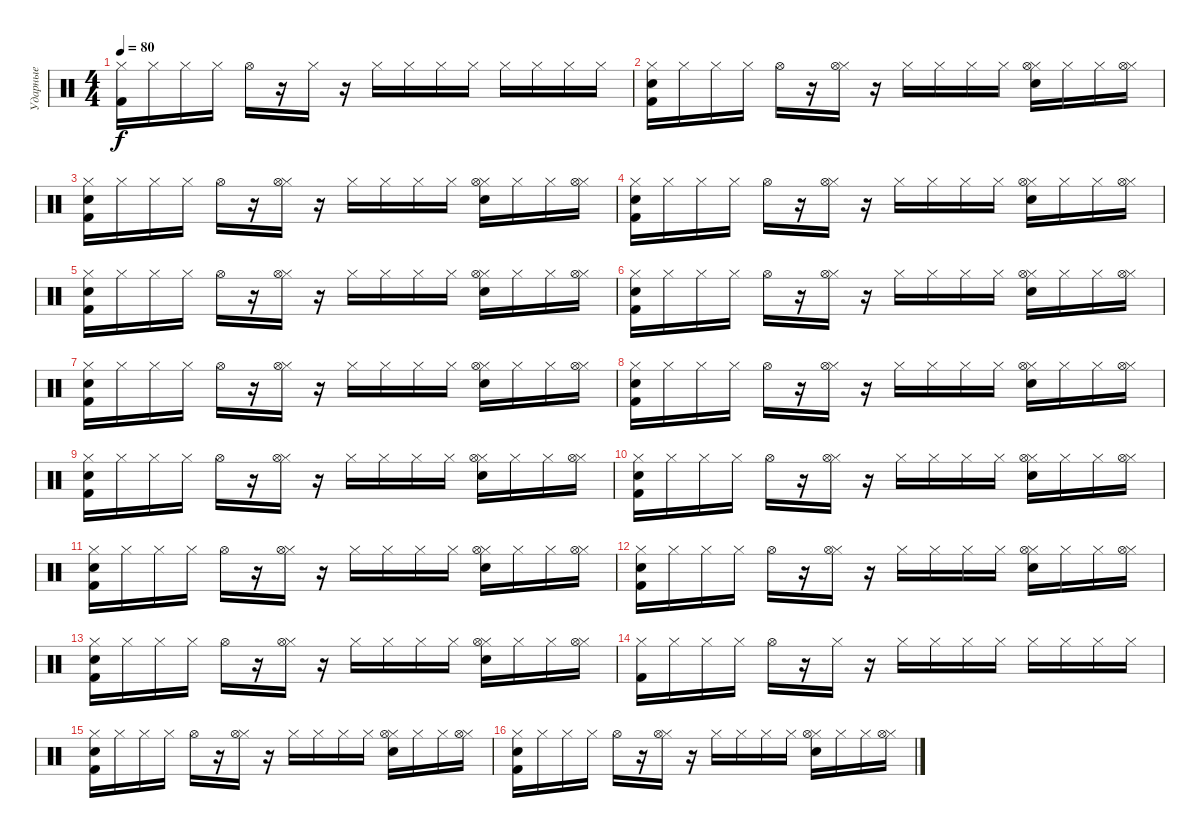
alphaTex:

\track ("Ударные" "Ударные") {instrument percussion}
\staff {score}
\articulation defaults
\ts (4 4)
\tempo 80
\clef neutral
\ks c
("Hi-Hat (closed)" "Kick (hit) 2").16{dy f} "Hi-Hat (closed)".16 "Hi-Hat (closed)".16 "Hi-Hat (closed)".16 "Hi-Hat (open)".16 r.16 "Hi-Hat (closed)".16 r.16 "Hi-Hat (closed)".16 "Hi-Hat (closed)".16 "Hi-Hat (closed)".16 "Hi-Hat (closed)".16 "Hi-Hat (closed)".16 "Hi-Hat (closed)".16 "Hi-Hat (closed)".16 "Hi-Hat (closed)".16 |
("Hi-Hat (closed)" "Kick (hit) 2" "Electric Snare (hit)").16 "Hi-Hat (closed)".16 "Hi-Hat (closed)".16 "Hi-Hat (closed)".16 "Hi-Hat (open)".16 r.16 ("Hi-Hat (closed)" "Hi-Hat (open)").16 r.16 "Hi-Hat (closed)".16 "Hi-Hat (closed)".16 "Hi-Hat (closed)".16 "Hi-Hat (closed)".16 ("Hi-Hat (closed)" "Electric Snare (hit)" "Hi-Hat (open)").16 "Hi-Hat (closed)".16 "Hi-Hat (closed)".16 ("Hi-Hat (closed)" "Hi-Hat (open)").16 |
("Hi-Hat (closed)" "Kick (hit) 2" "Electric Snare (hit)").16 "Hi-Hat (closed)".16 "Hi-Hat (closed)".16 "Hi-Hat (closed)".16 "Hi-Hat (open)".16 r.16 ("Hi-Hat (closed)" "Hi-Hat (open)").16 r.16 "Hi-Hat (closed)".16 "Hi-Hat (closed)".16 "Hi-Hat (closed)".16 "Hi-Hat (closed)".16 ("Hi-Hat (closed)" "Electric Snare (hit)" "Hi-Hat (open)").16 "Hi-Hat (closed)".16 "Hi-Hat (closed)".16 ("Hi-Hat (closed)" "Hi-Hat (open)").16 |
("Hi-Hat (closed)" "Kick (hit) 2" "Electric Snare (hit)").16 "Hi-Hat (closed)".16 "Hi-Hat (closed)".16 "Hi-Hat (closed)".16 "Hi-Hat (open)".16 r.16 ("Hi-Hat (closed)" "Hi-Hat (open)").16 r.16 "Hi-Hat (closed)".16 "Hi-Hat (closed)".16 "Hi-Hat (closed)".16 "Hi-Hat (closed)".16 ("Hi-Hat (closed)" "Electric Snare (hit)" "Hi-Hat (open)").16 "Hi-Hat (closed)".16 "Hi-Hat (closed)".16 ("Hi-Hat (closed)" "Hi-Hat (open)").16 |
("Hi-Hat (closed)" "Kick (hit) 2" "Electric Snare (hit)").16 "Hi-Hat (closed)".16 "Hi-Hat (closed)".16 "Hi-Hat (closed)".16 "Hi-Hat (open)".16 r.16 ("Hi-Hat (closed)" "Hi-Hat (open)").16 r.16 "Hi-Hat (closed)".16 "Hi-Hat (closed)".16 "Hi-Hat (closed)".16 "Hi-Hat (closed)".16 ("Hi-Hat (closed)" "Electric Snare (hit)" "Hi-Hat (open)").16 "Hi-Hat (closed)".16 "Hi-Hat (closed)".16 ("Hi-Hat (closed)" "Hi-Hat (open)").16 |
("Hi-Hat (closed)" "Kick (hit) 2" "Electric Snare (hit)").16 "Hi-Hat (closed)".16 "Hi-Hat (closed)".16 "Hi-Hat (closed)".16 "Hi-Hat (open)".16 r.16 ("Hi-Hat (closed)" "Hi-Hat (open)").16 r.16 "Hi-Hat (closed)".16 "Hi-Hat (closed)".16 "Hi-Hat (closed)".16 "Hi-Hat (closed)".16 ("Hi-Hat (closed)" "Electric Snare (hit)" "Hi-Hat (open)").16 "Hi-Hat (closed)".16 "Hi-Hat (closed)".16 ("Hi-Hat (closed)" "Hi-Hat (open)").16 |
("Hi-Hat (closed)" "Kick (hit) 2" "Electric Snare (hit)").16 "Hi-Hat (closed)".16 "Hi-Hat (closed)".16 "Hi-Hat (closed)".16 "Hi-Hat (open)".16 r.16 ("Hi-Hat (closed)" "Hi-Hat (open)").16 r.16 "Hi-Hat (closed)".16 "Hi-Hat (closed)".16 "Hi-Hat (closed)".16 "Hi-Hat (closed)".16 ("Hi-Hat (closed)" "Electric Snare (hit)" "Hi-Hat (open)").16 "Hi-Hat (closed)".16 "Hi-Hat (closed)".16 ("Hi-Hat (closed)" "Hi-Hat (open)").16 |
("Hi-Hat (closed)" "Kick (hit) 2" "Electric Snare (hit)").16 "Hi-Hat (closed)".16 "Hi-Hat (closed)".16 "Hi-Hat (closed)".16 "Hi-Hat (open)".16 r.16 ("Hi-Hat (closed)" "Hi-Hat (open)").16 r.16 "Hi-Hat (closed)".16 "Hi-Hat (closed)".16 "Hi-Hat (closed)".16 "Hi-Hat (closed)".16 ("Hi-Hat (closed)" "Electric Snare (hit)" "Hi-Hat (open)").16 "Hi-Hat (closed)".16 "Hi-Hat (closed)".16 ("Hi-Hat (closed)" "Hi-Hat (open)").16 |
("Hi-Hat (closed)" "Kick (hit) 2" "Electric Snare (hit)").16 "Hi-Hat (closed)".16 "Hi-Hat (closed)".16 "Hi-Hat (closed)".16 "Hi-Hat (open)".16 r.16 ("Hi-Hat (closed)" "Hi-Hat (open)").16 r.16 "Hi-Hat (closed)".16 "Hi-Hat (closed)".16 "Hi-Hat (closed)".16 "Hi-Hat (closed)".16 ("Hi-Hat (closed)" "Electric Snare (hit)" "Hi-Hat (open)").16 "Hi-Hat (closed)".16 "Hi-Hat (closed)".16 ("Hi-Hat (closed)" "Hi-Hat (open)").16 |
("Hi-Hat (closed)" "Kick (hit) 2" "Electric Snare (hit)").16 "Hi-Hat (closed)".16 "Hi-Hat (closed)".16 "Hi-Hat (closed)".16 "Hi-Hat (open)".16 r.16 ("Hi-Hat (closed)" "Hi-Hat (open)").16 r.16 "Hi-Hat (closed)".16 "Hi-Hat (closed)".16 "Hi-Hat (closed)".16 "Hi-Hat (closed)".16 ("Hi-Hat (closed)" "Electric Snare (hit)" "Hi-Hat (open)").16 "Hi-Hat (closed)".16 "Hi-Hat (closed)".16 ("Hi-Hat (closed)" "Hi-Hat (open)").16 |
("Hi-Hat (closed)" "Kick (hit) 2" "Electric Snare (hit)").16 "Hi-Hat (closed)".16 "Hi-Hat (closed)".16 "Hi-Hat (closed)".16 "Hi-Hat (open)".16 r.16 ("Hi-Hat (closed)" "Hi-Hat (open)").16 r.16 "Hi-Hat (closed)".16 "Hi-Hat (closed)".16 "Hi-Hat (closed)".16 "Hi-Hat (closed)".16 ("Hi-Hat (closed)" "Electric Snare (hit)" "Hi-Hat (open)").16 "Hi-Hat (closed)".16 "Hi-Hat (closed)".16 ("Hi-Hat (closed)" "Hi-Hat (open)").16 |
("Hi-Hat (closed)" "Kick (hit) 2" "Electric Snare (hit)").16 "Hi-Hat (closed)".16 "Hi-Hat (closed)".16 "Hi-Hat (closed)".16 "Hi-Hat (open)".16 r.16 ("Hi-Hat (closed)" "Hi-Hat (open)").16 r.16 "Hi-Hat (closed)".16 "Hi-Hat (closed)".16 "Hi-Hat (closed)".16 "Hi-Hat (closed)".16 ("Hi-Hat (closed)" "Electric Snare (hit)" "Hi-Hat (open)").16 "Hi-Hat (closed)".16 "Hi-Hat (closed)".16 ("Hi-Hat (closed)" "Hi-Hat (open)").16 |
("Hi-Hat (closed)" "Kick (hit) 2" "Electric Snare (hit)").16 "Hi-Hat (closed)".16 "Hi-Hat (closed)".16 "Hi-Hat (closed)".16 "Hi-Hat (open)".16 r.16 ("Hi-Hat (closed)" "Hi-Hat (open)").16 r.16 "Hi-Hat (closed)".16 "Hi-Hat (closed)".16 "Hi-Hat (closed)".16 "Hi-Hat (closed)".16 ("Hi-Hat (closed)" "Electric Snare (hit)" "Hi-Hat (open)").16 "Hi-Hat (closed)".16 "Hi-Hat (closed)".16 ("Hi-Hat (closed)" "Hi-Hat (open)").16 |
("Hi-Hat (closed)" "Kick (hit) 2").16 "Hi-Hat (closed)".16 "Hi-Hat (closed)".16 "Hi-Hat (closed)".16 "Hi-Hat (open)".16 r.16 "Hi-Hat (closed)".16 r.16 "Hi-Hat (closed)".16 "Hi-Hat (closed)".16 "Hi-Hat (closed)".16 "Hi-Hat (closed)".16 "Hi-Hat (closed)".16 "Hi-Hat (closed)".16 "Hi-Hat (closed)".16 "Hi-Hat (closed)".16 |
("Hi-Hat (closed)" "Kick (hit) 2" "Electric Snare (hit)").16 "Hi-Hat (closed)".16 "Hi-Hat (closed)".16 "Hi-Hat (closed)".16 "Hi-Hat (open)".16 r.16 ("Hi-Hat (closed)" "Hi-Hat (open)").16 r.16 "Hi-Hat (closed)".16 "Hi-Hat (closed)".16 "Hi-Hat (closed)".16 "Hi-Hat (closed)".16 ("Hi-Hat (closed)" "Electric Snare (hit)" "Hi-Hat (open)").16 "Hi-Hat (closed)".16 "Hi-Hat (closed)".16 ("Hi-Hat (closed)" "Hi-Hat (open)").16 |
("Hi-Hat (closed)" "Kick (hit) 2" "Electric Snare (hit)").16 "Hi-Hat (closed)".16 "Hi-Hat (closed)".16 "Hi-Hat (closed)".16 "Hi-Hat (open)".16 r.16 ("Hi-Hat (closed)" "Hi-Hat (open)").16 r.16 "Hi-Hat (closed)".16 "Hi-Hat (closed)".16 "Hi-Hat (closed)".16 "Hi-Hat (closed)".16 ("Hi-Hat (closed)" "Electric Snare (hit)" "Hi-Hat (open)").16 "Hi-Hat (closed)".16 "Hi-Hat (closed)".16 ("Hi-Hat (closed)" "Hi-Hat (open)").16
